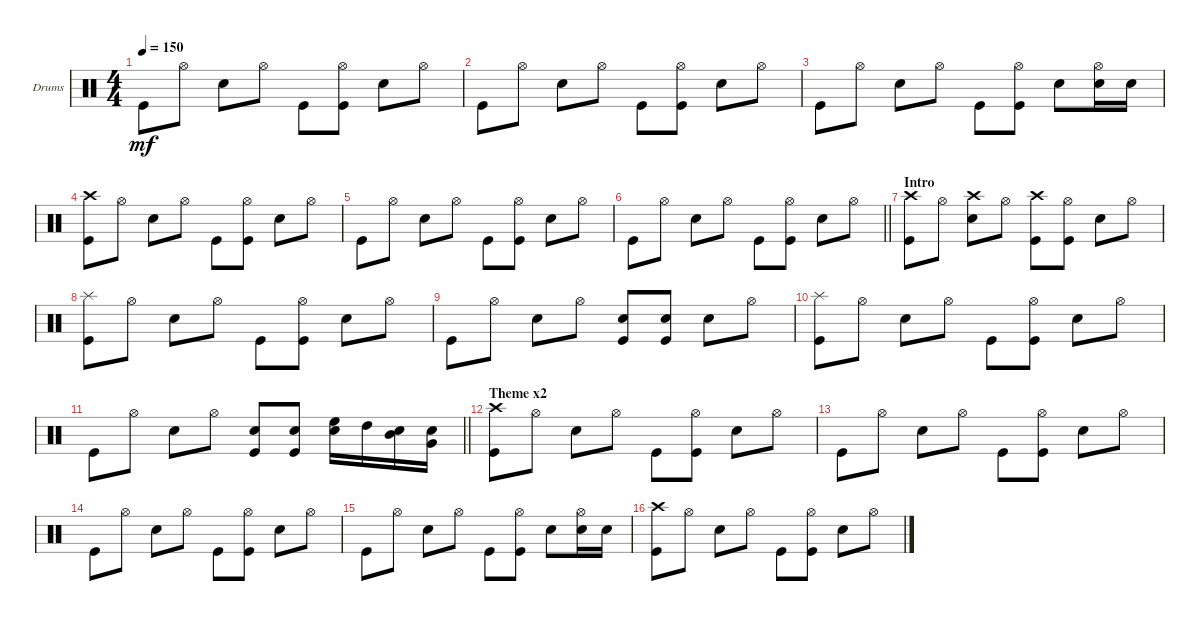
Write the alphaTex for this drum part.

\bracketExtendMode groupsimilarinstruments
\firstSystemTrackNameOrientation horizontal
\otherSystemsTrackNameOrientation horizontal
\track ("Percussion" "Drums") {instrument percussion}
\staff {score}
\articulation defaults
\ts (4 4)
\tempo 150
\clef neutral
\ks c "Kick (hit)".8{dy mf} "Hi-Hat (open)".8 "Snare (hit) 2".8 "Hi-Hat (open)".8 "Kick (hit)".8
("Hi-Hat (open)" "Kick (hit)").8 "Snare (hit) 2".8 "Hi-Hat (open)".8 |
"Kick (hit)".8 "Hi-Hat (open)".8 "Snare (hit) 2".8 "Hi-Hat (open)".8 "Kick (hit)".8 ("Hi-Hat (open)" "Kick (hit)").8 "Snare (hit) 2".8 "Hi-Hat (open)".8 |
"Kick (hit)".8 "Hi-Hat (open)".8 "Snare (hit) 2".8 "Hi-Hat (open)".8 "Kick (hit)".8 ("Hi-Hat (open)" "Kick (hit)").8 "Snare (hit) 2".8 ("Snare (hit) 2" "Hi-Hat (open)").16 "Snare (hit) 2".16 |
("Crash high (hit)" "Kick (hit)").8 "Hi-Hat (open)".8 "Snare (hit) 2".8 "Hi-Hat (open)".8 "Kick (hit)".8 ("Hi-Hat (open)" "Kick (hit)").8 "Snare (hit) 2".8 "Hi-Hat (open)".8 |
"Kick (hit)".8 "Hi-Hat (open)".8 "Snare (hit) 2".8 "Hi-Hat (open)".8 "Kick (hit)".8 ("Hi-Hat (open)" "Kick (hit)").8 "Snare (hit) 2".8 "Hi-Hat (open)".8 |
\barLineRight lightlight "Kick (hit)".8 "Hi-Hat (open)".8 "Snare (hit) 2".8 "Hi-Hat (open)".8 "Kick (hit)".8
("Hi-Hat (open)" "Kick (hit)").8 "Snare (hit) 2".8 "Hi-Hat (open)".8 |
\section ("" "Intro")
("Crash high (hit)" "Kick (hit)").8 "Hi-Hat (open)".8 ("Crash high (hit)" "Snare (hit) 2").8 "Hi-Hat (open)".8 ("Crash high (hit)" "Kick (hit)").8 ("Hi-Hat (open)" "Kick (hit)").8 "Snare (hit) 2".8 "Hi-Hat (open)".8 |
("Splash (hit)" "Kick (hit)").8 "Hi-Hat (open)".8 "Snare (hit) 2".8 "Hi-Hat (open)".8 "Kick (hit)".8 ("Hi-Hat (open)" "Kick (hit)").8 "Snare (hit) 2".8 "Hi-Hat (open)".8 |
"Kick (hit)".8 "Hi-Hat (open)".8 "Snare (hit) 2".8 "Hi-Hat (open)".8 ("Snare (hit) 2" "Kick (hit)").8 ("Snare (hit) 2" "Kick (hit)").8 "Snare (hit) 2".8 "Hi-Hat (open)".8 |
("Splash (hit)" "Kick (hit)").8 "Hi-Hat (open)".8 "Snare (hit) 2".8 "Hi-Hat (open)".8 "Kick (hit)".8 ("Hi-Hat (open)" "Kick (hit)").8 "Snare (hit) 2".8 "Hi-Hat (open)".8 |
\barLineRight lightlight "Kick (hit)".8 "Hi-Hat (open)".8 "Snare (hit) 2".8 "Hi-Hat (open)".8
("Snare (hit) 2" "Kick (hit)").8 ("Snare (hit) 2" "Kick (hit)").8 ("Snare (hit) 2" "High Floor Tom (hit)").16 "High Tom (hit)".16 ("Snare (hit) 2" "Mid Tom (hit)").16 ("Snare (hit) 2" "Very Low Tom (hit)").16 |
\section ("" "Theme x2")
("Crash high (hit)" "Kick (hit)").8 "Hi-Hat (open)".8 "Snare (hit) 2".8 "Hi-Hat (open)".8 "Kick (hit)".8 ("Hi-Hat (open)" "Kick (hit)").8 "Snare (hit) 2".8 "Hi-Hat (open)".8 |
"Kick (hit)".8 "Hi-Hat (open)".8 "Snare (hit) 2".8 "Hi-Hat (open)".8 "Kick (hit)".8 ("Hi-Hat (open)" "Kick (hit)").8 "Snare (hit) 2".8 "Hi-Hat (open)".8 |
"Kick (hit)".8 "Hi-Hat (open)".8 "Snare (hit) 2".8 "Hi-Hat (open)".8 "Kick (hit)".8 ("Kick (hit)" "Hi-Hat (open)").8 "Snare (hit) 2".8 "Hi-Hat (open)".8 |
"Kick (hit)".8 "Hi-Hat (open)".8 "Snare (hit) 2".8 "Hi-Hat (open)".8 "Kick (hit)".8 ("Kick (hit)" "Hi-Hat (open)").8 "Snare (hit) 2".8 ("Snare (hit) 2" "Hi-Hat (open)").16 "Snare (hit) 2".16 |
("Crash high (hit)" "Kick (hit)").8 "Hi-Hat (open)".8 "Snare (hit) 2".8 "Hi-Hat (open)".8 "Kick (hit)".8 ("Hi-Hat (open)" "Kick (hit)").8 "Snare (hit) 2".8 "Hi-Hat (open)".8
